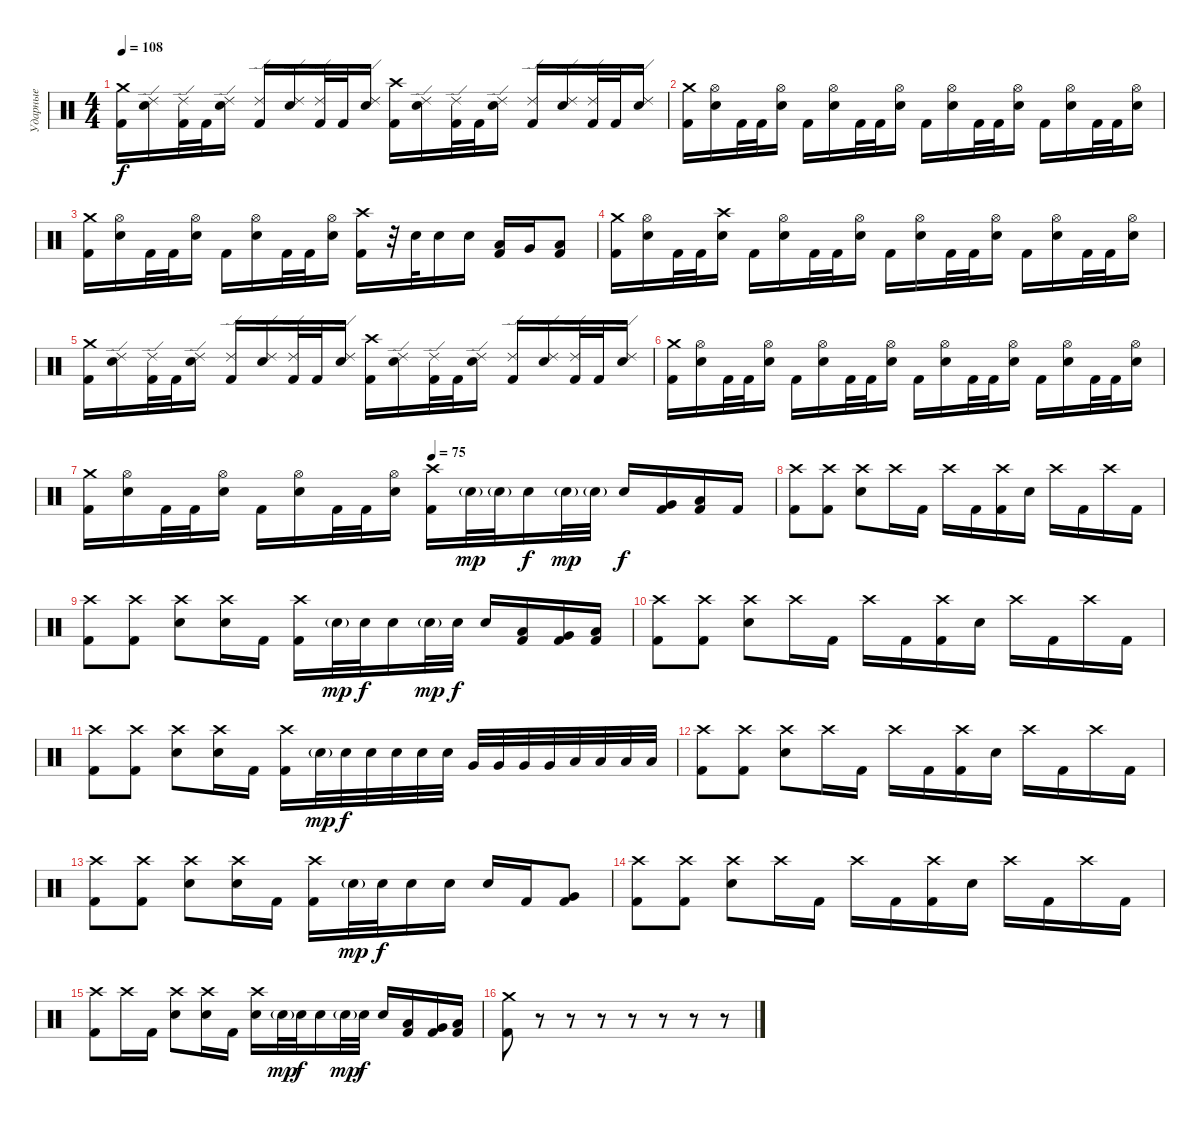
\track ("Ударные" "Ударные") {instrument percussion}
\staff {score}
\articulation defaults
\ts (4 4)
\tempo 108
\clef neutral
\ks c
("Crash medium (hit)" "Kick (hit) 2").16{dy f} ("Ride (edge) 2" "Electric Snare (hit)").16 ("Ride (edge) 2" "Kick (hit) 2").32 "Kick (hit) 2".32 ("Ride (edge) 2" "Electric Snare (hit)").16 ("Ride (edge) 2" "Kick (hit) 2").16 ("Ride (edge) 2" "Electric Snare (hit)").16 ("Ride (edge) 2" "Kick (hit) 2").32 "Kick (hit) 2".32 ("Ride (edge) 2" "Electric Snare (hit)").16 ("Crash high (hit)" "Kick (hit) 2").16 ("Ride (edge) 2" "Electric Snare (hit)").16 ("Ride (edge) 2" "Kick (hit) 2").32 "Kick (hit) 2".32 ("Ride (edge) 2" "Electric Snare (hit)").16 ("Ride (edge) 2" "Kick (hit) 2").16 ("Ride (edge) 2" "Electric Snare (hit)").16 ("Ride (edge) 2" "Kick (hit) 2").32 "Kick (hit) 2".32 ("Ride (edge) 2" "Electric Snare (hit)").16 |
("Crash medium (hit)" "Kick (hit) 2").16 ("Hi-Hat (open)" "Electric Snare (hit)").16 "Kick (hit) 2".32 "Kick (hit) 2".32 ("Hi-Hat (open)" "Electric Snare (hit)").16 "Kick (hit) 2".16 ("Hi-Hat (open)" "Electric Snare (hit)").16 "Kick (hit) 2".32 "Kick (hit) 2".32 ("Hi-Hat (open)" "Electric Snare (hit)").16 "Kick (hit) 2".16 ("Hi-Hat (open)" "Electric Snare (hit)").16 "Kick (hit) 2".32 "Kick (hit) 2".32 ("Hi-Hat (open)" "Electric Snare (hit)").16 "Kick (hit) 2".16 ("Hi-Hat (open)" "Electric Snare (hit)").16 "Kick (hit) 2".32 "Kick (hit) 2".32 ("Hi-Hat (open)" "Electric Snare (hit)").16 |
("Crash medium (hit)" "Kick (hit) 2").16 ("Hi-Hat (open)" "Electric Snare (hit)").16 "Kick (hit) 2".32 "Kick (hit) 2".32 ("Hi-Hat (open)" "Electric Snare (hit)").16 "Kick (hit) 2".16 ("Hi-Hat (open)" "Electric Snare (hit)").16 "Kick (hit) 2".32 "Kick (hit) 2".32 ("Hi-Hat (open)" "Electric Snare (hit)").16 ("Crash high (hit)" "Kick (hit) 2").16 r.32 "Electric Snare (hit)".32 "Electric Snare (hit)".16 "Electric Snare (hit)".16 ("Low Tom (hit)" "Kick (hit) 2").16 "Very Low Tom (hit)".16 ("Low Floor Tom (hit)" "Kick (hit) 2").8 |
("Crash medium (hit)" "Kick (hit) 2").16 ("Hi-Hat (open)" "Electric Snare (hit)").16 "Kick (hit) 2".32 "Kick (hit) 2".32 ("Crash high (hit)" "Electric Snare (hit)").16 "Kick (hit) 2".16 ("Hi-Hat (open)" "Electric Snare (hit)").16 "Kick (hit) 2".32 "Kick (hit) 2".32 ("Hi-Hat (open)" "Electric Snare (hit)").16 "Kick (hit) 2".16 ("Hi-Hat (open)" "Electric Snare (hit)").16 "Kick (hit) 2".32 "Kick (hit) 2".32 ("Hi-Hat (open)" "Electric Snare (hit)").16 "Kick (hit) 2".16 ("Hi-Hat (open)" "Electric Snare (hit)").16 "Kick (hit) 2".32 "Kick (hit) 2".32 ("Hi-Hat (open)" "Electric Snare (hit)").16 |
("Crash medium (hit)" "Kick (hit) 2").16 ("Ride (edge) 2" "Electric Snare (hit)").16 ("Ride (edge) 2" "Kick (hit) 2").32 "Kick (hit) 2".32 ("Ride (edge) 2" "Electric Snare (hit)").16 ("Ride (edge) 2" "Kick (hit) 2").16 ("Ride (edge) 2" "Electric Snare (hit)").16 ("Ride (edge) 2" "Kick (hit) 2").32 "Kick (hit) 2".32 ("Ride (edge) 2" "Electric Snare (hit)").16 ("Crash high (hit)" "Kick (hit) 2").16 ("Ride (edge) 2" "Electric Snare (hit)").16 ("Ride (edge) 2" "Kick (hit) 2").32 "Kick (hit) 2".32 ("Ride (edge) 2" "Electric Snare (hit)").16 ("Ride (edge) 2" "Kick (hit) 2").16 ("Ride (edge) 2" "Electric Snare (hit)").16 ("Ride (edge) 2" "Kick (hit) 2").32 "Kick (hit) 2".32 ("Ride (edge) 2" "Electric Snare (hit)").16 |
("Crash medium (hit)" "Kick (hit) 2").16 ("Hi-Hat (open)" "Electric Snare (hit)").16 "Kick (hit) 2".32 "Kick (hit) 2".32 ("Hi-Hat (open)" "Electric Snare (hit)").16 "Kick (hit) 2".16 ("Hi-Hat (open)" "Electric Snare (hit)").16 "Kick (hit) 2".32 "Kick (hit) 2".32 ("Hi-Hat (open)" "Electric Snare (hit)").16 "Kick (hit) 2".16 ("Hi-Hat (open)" "Electric Snare (hit)").16 "Kick (hit) 2".32 "Kick (hit) 2".32 ("Hi-Hat (open)" "Electric Snare (hit)").16 "Kick (hit) 2".16 ("Hi-Hat (open)" "Electric Snare (hit)").16 "Kick (hit) 2".32 "Kick (hit) 2".32 ("Hi-Hat (open)" "Electric Snare (hit)").16 |
\tempo (75 0.5)
("Crash medium (hit)" "Kick (hit) 2").16 ("Hi-Hat (open)" "Electric Snare (hit)").16 "Kick (hit) 2".32 "Kick (hit) 2".32 ("Hi-Hat (open)" "Electric Snare (hit)").16 "Kick (hit) 2".16 ("Hi-Hat (open)" "Electric Snare (hit)").16 "Kick (hit) 2".32 "Kick (hit) 2".32 ("Hi-Hat (open)" "Electric Snare (hit)").16 ("Crash high (hit)" "Kick (hit) 2").16 "Electric Snare (hit)"{g}.32{dy mp} "Electric Snare (hit)"{g}.32 "Electric Snare (hit)".16{dy f} "Electric Snare (hit)"{g}.32{dy mp} "Electric Snare (hit)"{g}.32 "Electric Snare (hit)".16{dy f} ("Very Low Tom (hit)" "Kick (hit) 2").16 ("Low Floor Tom (hit)" "Kick (hit) 2").16 "Kick (hit) 2".16 |
("Crash high (hit)" "Kick (hit) 2").8 ("Crash high (hit)" "Kick (hit) 2").8 ("Crash high (hit)" "Electric Snare (hit)").8 "Crash high (hit)".16 "Kick (hit) 2".16 "Crash high (hit)".16 "Kick (hit) 2".16 ("Crash high (hit)" "Kick (hit) 2").16 "Electric Snare (hit)".16 "Crash high (hit)".16 "Kick (hit) 2".16 "Crash high (hit)".16 "Kick (hit) 2".16 |
("Crash high (hit)" "Kick (hit) 2").8 ("Crash high (hit)" "Kick (hit) 2").8 ("Crash high (hit)" "Electric Snare (hit)").8 ("Crash high (hit)" "Electric Snare (hit)").16 "Kick (hit) 2".16 ("Crash high (hit)" "Kick (hit) 2").16 "Electric Snare (hit)"{g}.32{dy mp} "Electric Snare (hit)".32{dy f} "Electric Snare (hit)".16 "Electric Snare (hit)"{g}.32{dy mp} "Electric Snare (hit)".32{dy f} "Electric Snare (hit)".16 ("Low Tom (hit)" "Kick (hit) 2").16 ("Very Low Tom (hit)" "Kick (hit) 2").16 ("Low Floor Tom (hit)" "Kick (hit) 2").16 |
("Crash high (hit)" "Kick (hit) 2").8 ("Crash high (hit)" "Kick (hit) 2").8 ("Crash high (hit)" "Electric Snare (hit)").8 "Crash high (hit)".16 "Kick (hit) 2".16 "Crash high (hit)".16 "Kick (hit) 2".16 ("Crash high (hit)" "Kick (hit) 2").16 "Electric Snare (hit)".16 "Crash high (hit)".16 "Kick (hit) 2".16 "Crash high (hit)".16 "Kick (hit) 2".16 |
("Crash high (hit)" "Kick (hit) 2").8 ("Crash high (hit)" "Kick (hit) 2").8 ("Crash high (hit)" "Electric Snare (hit)").8 ("Crash high (hit)" "Electric Snare (hit)").16 "Kick (hit) 2".16 ("Crash high (hit)" "Kick (hit) 2").16 "Electric Snare (hit)"{g}.32{dy mp} "Electric Snare (hit)".32{dy f} "Electric Snare (hit)".32 "Electric Snare (hit)".32 "Electric Snare (hit)".32 "Electric Snare (hit)".32 "Very Low Tom (hit)".32 "Very Low Tom (hit)".32 "Very Low Tom (hit)".32 "Very Low Tom (hit)".32 "Low Floor Tom (hit)".32 "Low Floor Tom (hit)".32 "Low Floor Tom (hit)".32 "Low Floor Tom (hit)".32 |
("Crash high (hit)" "Kick (hit) 2").8 ("Crash high (hit)" "Kick (hit) 2").8 ("Crash high (hit)" "Electric Snare (hit)").8 "Crash high (hit)".16 "Kick (hit) 2".16 "Crash high (hit)".16 "Kick (hit) 2".16 ("Crash high (hit)" "Kick (hit) 2").16 "Electric Snare (hit)".16 "Crash high (hit)".16 "Kick (hit) 2".16 "Crash high (hit)".16 "Kick (hit) 2".16 |
("Crash high (hit)" "Kick (hit) 2").8 ("Crash high (hit)" "Kick (hit) 2").8 ("Crash high (hit)" "Electric Snare (hit)").8 ("Crash high (hit)" "Electric Snare (hit)").16 "Kick (hit) 2".16 ("Crash high (hit)" "Kick (hit) 2").16 "Electric Snare (hit)"{g}.32{dy mp} "Electric Snare (hit)".32{dy f} "Electric Snare (hit)".16 "Electric Snare (hit)".16 "Electric Snare (hit)".16 "Kick (hit) 2".16 ("Very Low Tom (hit)" "Kick (hit) 2").8 |
("Crash high (hit)" "Kick (hit) 2").8 ("Crash high (hit)" "Kick (hit) 2").8 ("Crash high (hit)" "Electric Snare (hit)").8 "Crash high (hit)".16 "Kick (hit) 2".16 "Crash high (hit)".16 "Kick (hit) 2".16 ("Crash high (hit)" "Kick (hit) 2").16 "Electric Snare (hit)".16 "Crash high (hit)".16 "Kick (hit) 2".16 "Crash high (hit)".16 "Kick (hit) 2".16 |
("Crash high (hit)" "Kick (hit) 2").8 "Crash high (hit)".16 "Kick (hit) 2".16 ("Crash high (hit)" "Electric Snare (hit)").8 ("Crash high (hit)" "Electric Snare (hit)").16 "Kick (hit) 2".16 ("Crash high (hit)" "Electric Snare (hit)").16 "Electric Snare (hit)"{g}.32{dy mp} "Electric Snare (hit)".32{dy f} "Electric Snare (hit)".16 "Electric Snare (hit)"{g}.32{dy mp} "Electric Snare (hit)".32{dy f} "Electric Snare (hit)".16 ("Low Tom (hit)" "Kick (hit) 2").16 ("Very Low Tom (hit)" "Kick (hit) 2").16 ("Low Floor Tom (hit)" "Kick (hit) 2").16 |
("Crash medium (hit)" "Kick (hit) 2").8 r.8 r.8 r.8 r.8 r.8 r.8 r.8
